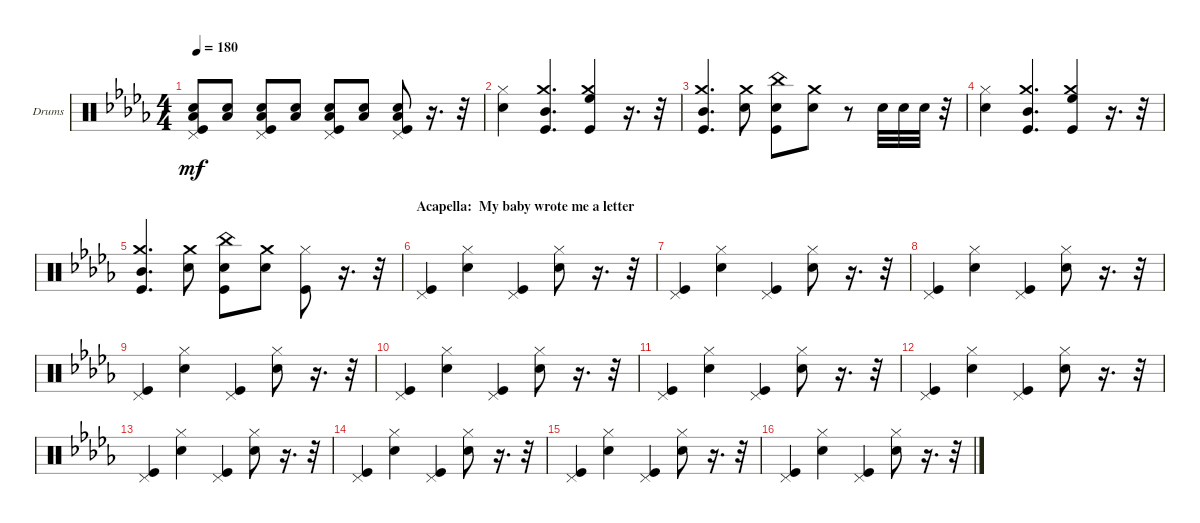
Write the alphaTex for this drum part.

\bracketExtendMode groupsimilarinstruments
\firstSystemTrackNameOrientation horizontal
\otherSystemsTrackNameOrientation horizontal
\track ("Drums" "Drums") {instrument percussion}
\staff {score}
\articulation defaults
\ts (4 4)
\tempo 180
\clef neutral
\ks bbminor
("Kick (hit)" "Low Tom (hit)" "Pedal Hi-Hat (hit)" "Snare (hit) 2").8{dy mf} ("Low Tom (hit)" "Snare (hit) 2").8 ("Kick (hit)" "Snare (hit) 2" "Pedal Hi-Hat (hit)" "Low Tom (hit)").8 ("Snare (hit) 2" "Low Tom (hit)").8 ("Kick (hit)" "Pedal Hi-Hat (hit)" "Low Tom (hit)" "Snare (hit) 2").8 ("Low Tom (hit)" "Snare (hit) 2").8 ("Snare (hit) 2" "Kick (hit)" "Low Tom (hit)" "Pedal Hi-Hat (hit)").8 r.16{d} r.32 |
("Snare (hit) 2" "Hi-Hat (closed)").4 ("Crash medium (hit)" "Mid Tom (hit)" "Kick (hit)").4{d} ("High Floor Tom (hit)" "Kick (hit)" "Crash medium (hit)").4 r.16{d} r.32 |
("Kick (hit)" "Mid Tom (hit)" "Crash medium (hit)").4{d} ("Crash medium (hit)" "Snare (hit) 2").8 ("Kick (hit)" "China (hit)" "Snare (hit) 2").8 ("Snare (hit) 2" "Crash medium (hit)").8 r.8 "Snare (hit) 2".32 "Snare (hit) 2".32 "Snare (hit) 2".32 r.32 |
("Snare (hit) 2" "Hi-Hat (closed)").4 ("Kick (hit)" "Mid Tom (hit)" "Crash medium (hit)").4{d} ("High Floor Tom (hit)" "Crash medium (hit)" "Kick (hit)").4 r.16{d} r.32 |
("Kick (hit)" "Crash medium (hit)" "Mid Tom (hit)").4{d} ("Crash medium (hit)" "Snare (hit) 2").8 ("Kick (hit)" "China (hit)" "Snare (hit) 2").8 ("Snare (hit) 2" "Crash medium (hit)").8 ("Hi-Hat (closed)" "Kick (hit)").8 r.16{d} r.32 |
\section ("" "Acapella:  My baby wrote me a letter")
("Kick (hit)" "Pedal Hi-Hat (hit)").4 ("Snare (hit) 2" "Hi-Hat (closed)").4 ("Kick (hit)" "Pedal Hi-Hat (hit)").4 ("Snare (hit) 2" "Hi-Hat (closed)").8 r.16{d} r.32 |
("Kick (hit)" "Pedal Hi-Hat (hit)").4 ("Snare (hit) 2" "Hi-Hat (closed)").4 ("Kick (hit)" "Pedal Hi-Hat (hit)").4 ("Snare (hit) 2" "Hi-Hat (closed)").8 r.16{d} r.32 |
("Kick (hit)" "Pedal Hi-Hat (hit)").4 ("Snare (hit) 2" "Hi-Hat (closed)").4 ("Kick (hit)" "Pedal Hi-Hat (hit)").4 ("Snare (hit) 2" "Hi-Hat (closed)").8 r.16{d} r.32 |
("Kick (hit)" "Pedal Hi-Hat (hit)").4 ("Snare (hit) 2" "Hi-Hat (closed)").4 ("Kick (hit)" "Pedal Hi-Hat (hit)").4 ("Snare (hit) 2" "Hi-Hat (closed)").8 r.16{d} r.32 |
("Kick (hit)" "Pedal Hi-Hat (hit)").4 ("Snare (hit) 2" "Hi-Hat (closed)").4 ("Kick (hit)" "Pedal Hi-Hat (hit)").4 ("Snare (hit) 2" "Hi-Hat (closed)").8 r.16{d} r.32 |
("Kick (hit)" "Pedal Hi-Hat (hit)").4 ("Snare (hit) 2" "Hi-Hat (closed)").4 ("Kick (hit)" "Pedal Hi-Hat (hit)").4 ("Snare (hit) 2" "Hi-Hat (closed)").8 r.16{d} r.32 |
("Kick (hit)" "Pedal Hi-Hat (hit)").4 ("Snare (hit) 2" "Hi-Hat (closed)").4 ("Kick (hit)" "Pedal Hi-Hat (hit)").4 ("Snare (hit) 2" "Hi-Hat (closed)").8 r.16{d} r.32 |
("Kick (hit)" "Pedal Hi-Hat (hit)").4 ("Snare (hit) 2" "Hi-Hat (closed)").4 ("Kick (hit)" "Pedal Hi-Hat (hit)").4 ("Snare (hit) 2" "Hi-Hat (closed)").8 r.16{d} r.32 |
("Kick (hit)" "Pedal Hi-Hat (hit)").4 ("Snare (hit) 2" "Hi-Hat (closed)").4 ("Kick (hit)" "Pedal Hi-Hat (hit)").4 ("Snare (hit) 2" "Hi-Hat (closed)").8 r.16{d} r.32 |
("Kick (hit)" "Pedal Hi-Hat (hit)").4 ("Snare (hit) 2" "Hi-Hat (closed)").4 ("Kick (hit)" "Pedal Hi-Hat (hit)").4 ("Snare (hit) 2" "Hi-Hat (closed)").8 r.16{d} r.32 |
("Kick (hit)" "Pedal Hi-Hat (hit)").4 ("Snare (hit) 2" "Hi-Hat (closed)").4 ("Kick (hit)" "Pedal Hi-Hat (hit)").4 ("Snare (hit) 2" "Hi-Hat (closed)").8 r.16{d} r.32
